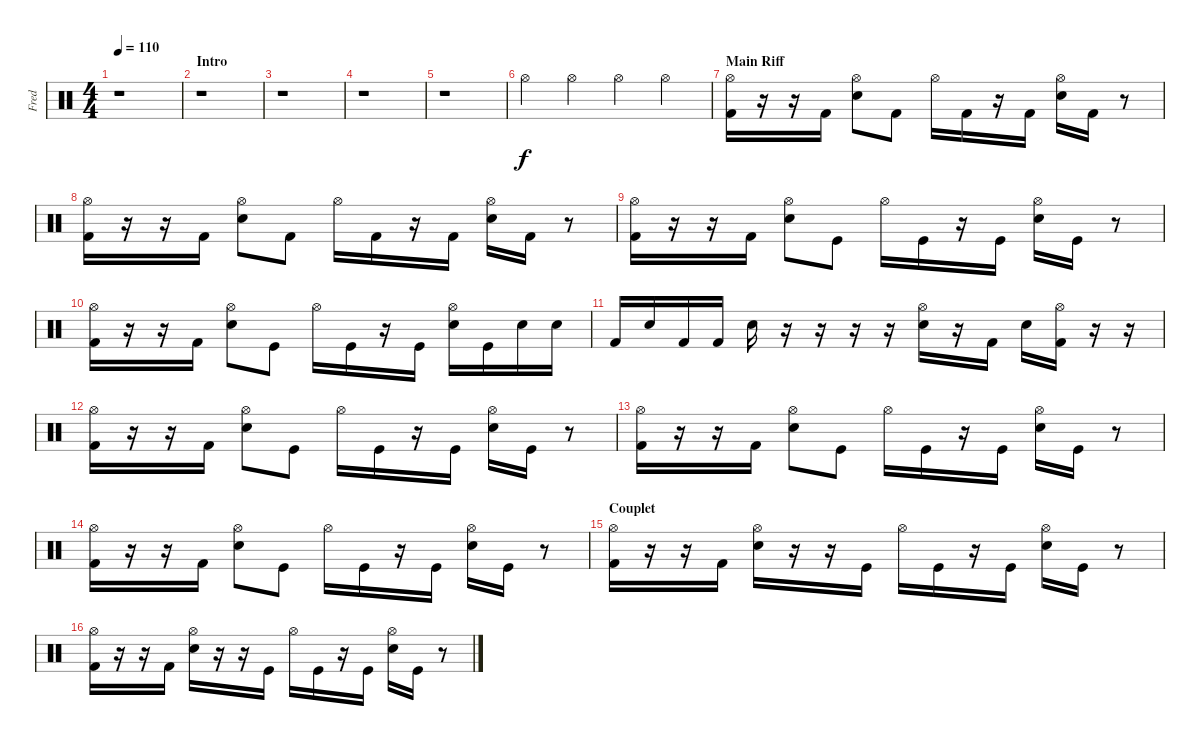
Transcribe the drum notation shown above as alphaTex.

\track ("Fred" "Fred") {instrument percussion}
\staff {score}
\articulation defaults
\ts (4 4)
\tempo 110
\clef neutral
\ks c
r.1{dy f} |
\section ("" "Intro")
r.1 |
r.1 |
r.1 |
r.1 |
"Hi-Hat (open)".4 "Hi-Hat (open)".4 "Hi-Hat (open)".4 "Hi-Hat (open)".4 |
\section ("" "Main Riff")
("Hi-Hat (open)" "Kick (hit) 2").16 r.16 r.16 "Kick (hit) 2".16 ("Hi-Hat (open)" "Electric Snare (hit)").8 "Kick (hit) 2".8 "Hi-Hat (open)".16 "Kick (hit) 2".16 r.16 "Kick (hit) 2".16 ("Hi-Hat (open)" "Electric Snare (hit)").16 "Kick (hit) 2".16 r.8 |
("Hi-Hat (open)" "Kick (hit) 2").16 r.16 r.16 "Kick (hit) 2".16 ("Hi-Hat (open)" "Electric Snare (hit)").8 "Kick (hit) 2".8 "Hi-Hat (open)".16 "Kick (hit) 2".16 r.16 "Kick (hit) 2".16 ("Hi-Hat (open)" "Electric Snare (hit)").16 "Kick (hit) 2".16 r.8 |
("Hi-Hat (open)" "Kick (hit) 2").16 r.16 r.16 "Kick (hit) 2".16 ("Hi-Hat (open)" "Electric Snare (hit)").8 "Kick (hit)".8 "Hi-Hat (open)".16 "Kick (hit)".16 r.16 "Kick (hit)".16 ("Hi-Hat (open)" "Electric Snare (hit)").16 "Kick (hit)".16 r.8 |
("Hi-Hat (open)" "Kick (hit) 2").16 r.16 r.16 "Kick (hit) 2".16 ("Hi-Hat (open)" "Electric Snare (hit)").8 "Kick (hit)".8 "Hi-Hat (open)".16 "Kick (hit)".16 r.16 "Kick (hit)".16 ("Hi-Hat (open)" "Electric Snare (hit)").16 "Kick (hit)".16 "Electric Snare (hit)".16 "Electric Snare (hit)".16 |
"Kick (hit) 2".16 "Electric Snare (hit)".16 "Kick (hit) 2".16 "Kick (hit) 2".16 "Electric Snare (hit)".16 r.16 r.16 r.16 r.16 ("Hi-Hat (open)" "Electric Snare (hit)").16 r.16 "Kick (hit) 2".16 "Electric Snare (hit)".16 ("Hi-Hat (open)" "Kick (hit) 2").16 r.16 r.16 |
("Hi-Hat (open)" "Kick (hit) 2").16 r.16 r.16 "Kick (hit) 2".16 ("Hi-Hat (open)" "Electric Snare (hit)").8 "Kick (hit)".8 "Hi-Hat (open)".16 "Kick (hit)".16 r.16 "Kick (hit)".16 ("Hi-Hat (open)" "Electric Snare (hit)").16 "Kick (hit)".16 r.8 |
("Hi-Hat (open)" "Kick (hit) 2").16 r.16 r.16 "Kick (hit) 2".16 ("Hi-Hat (open)" "Electric Snare (hit)").8 "Kick (hit)".8 "Hi-Hat (open)".16 "Kick (hit)".16 r.16 "Kick (hit)".16 ("Hi-Hat (open)" "Electric Snare (hit)").16 "Kick (hit)".16 r.8 |
("Hi-Hat (open)" "Kick (hit) 2").16 r.16 r.16 "Kick (hit) 2".16 ("Hi-Hat (open)" "Electric Snare (hit)").8 "Kick (hit)".8 "Hi-Hat (open)".16 "Kick (hit)".16 r.16 "Kick (hit)".16 ("Hi-Hat (open)" "Electric Snare (hit)").16 "Kick (hit)".16 r.8 |
\section ("" "Couplet")
("Hi-Hat (open)" "Kick (hit) 2").16 r.16 r.16 "Kick (hit) 2".16 ("Hi-Hat (open)" "Electric Snare (hit)").16 r.16 r.16 "Kick (hit)".16 "Hi-Hat (open)".16 "Kick (hit)".16 r.16 "Kick (hit)".16 ("Hi-Hat (open)" "Electric Snare (hit)").16 "Kick (hit)".16 r.8 |
("Hi-Hat (open)" "Kick (hit) 2").16 r.16 r.16 "Kick (hit) 2".16 ("Hi-Hat (open)" "Electric Snare (hit)").16 r.16 r.16 "Kick (hit)".16 "Hi-Hat (open)".16 "Kick (hit)".16 r.16 "Kick (hit)".16 ("Hi-Hat (open)" "Electric Snare (hit)").16 "Kick (hit)".16 r.8
